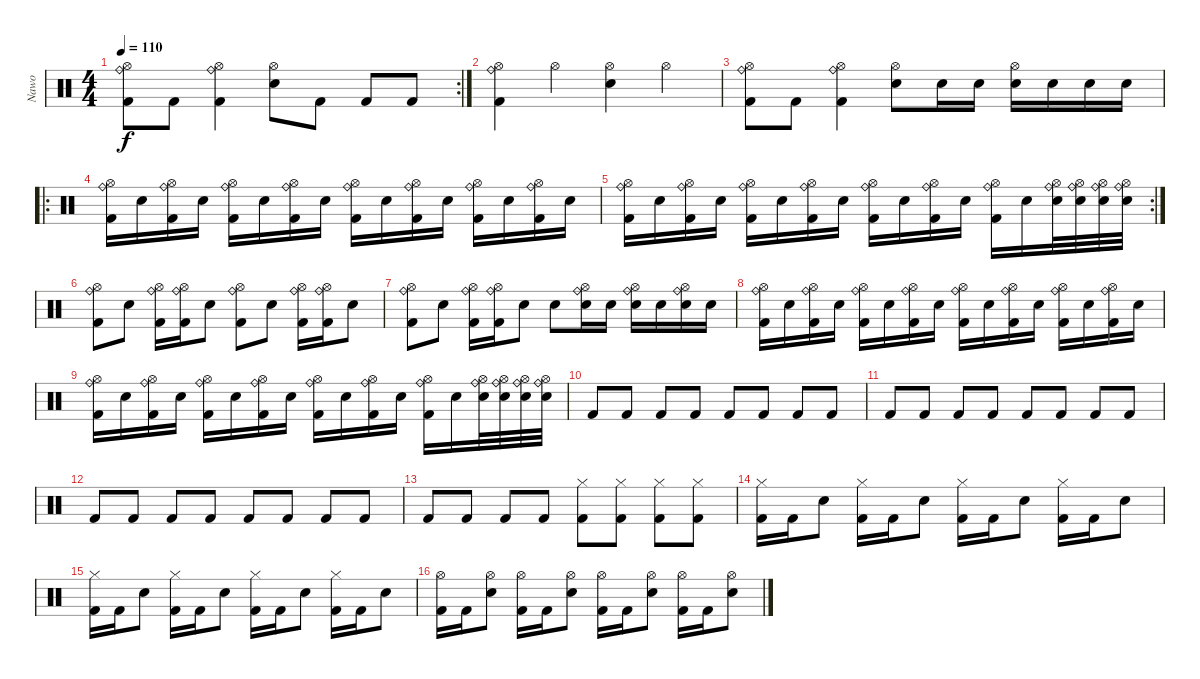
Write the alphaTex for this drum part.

\track ("Nawo" "Nawo") {instrument percussion}
\staff {score}
\articulation defaults
\rc 2
\ts (4 4)
\tempo 110
\clef neutral
\ks c
("Ride (bell)" "Hi-Hat (open)" "Kick (hit) 2").8{dy f} "Kick (hit) 2".8 ("Ride (bell)" "Hi-Hat (open)" "Kick (hit) 2").4 ("Hi-Hat (open)" "Electric Snare (hit)").8 "Kick (hit) 2".8 "Kick (hit) 2".8 "Kick (hit) 2".8 |
("Ride (bell)" "Hi-Hat (open)" "Kick (hit) 2").4 "Hi-Hat (open)".4 ("Hi-Hat (open)" "Electric Snare (hit)").4 "Hi-Hat (open)".4 |
("Ride (bell)" "Hi-Hat (open)" "Kick (hit) 2").8 "Kick (hit) 2".8 ("Ride (bell)" "Hi-Hat (open)" "Kick (hit) 2").4 ("Hi-Hat (open)" "Electric Snare (hit)").8 "Electric Snare (hit)".16 "Electric Snare (hit)".16 ("Hi-Hat (open)" "Electric Snare (hit)").16 "Electric Snare (hit)".16 "Electric Snare (hit)".16 "Electric Snare (hit)".16 |
\ro
("Ride (bell)" "Hi-Hat (open)" "Kick (hit) 2").16 "Electric Snare (hit)".16 ("Ride (bell)" "Hi-Hat (open)" "Kick (hit) 2").16 "Electric Snare (hit)".16 ("Ride (bell)" "Hi-Hat (open)" "Kick (hit) 2").16 "Electric Snare (hit)".16 ("Ride (bell)" "Hi-Hat (open)" "Kick (hit) 2").16 "Electric Snare (hit)".16 ("Ride (bell)" "Hi-Hat (open)" "Kick (hit) 2").16 "Electric Snare (hit)".16 ("Ride (bell)" "Hi-Hat (open)" "Kick (hit) 2").16 "Electric Snare (hit)".16 ("Ride (bell)" "Hi-Hat (open)" "Kick (hit) 2").16 "Electric Snare (hit)".16 ("Ride (bell)" "Hi-Hat (open)" "Kick (hit) 2").16 "Electric Snare (hit)".16 |
\rc 2
("Ride (bell)" "Hi-Hat (open)" "Kick (hit) 2").16 "Electric Snare (hit)".16 ("Ride (bell)" "Hi-Hat (open)" "Kick (hit) 2").16 "Electric Snare (hit)".16 ("Ride (bell)" "Hi-Hat (open)" "Kick (hit) 2").16 "Electric Snare (hit)".16 ("Ride (bell)" "Hi-Hat (open)" "Kick (hit) 2").16 "Electric Snare (hit)".16 ("Ride (bell)" "Hi-Hat (open)" "Kick (hit) 2").16 "Electric Snare (hit)".16 ("Ride (bell)" "Hi-Hat (open)" "Kick (hit) 2").16 "Electric Snare (hit)".16 ("Ride (bell)" "Hi-Hat (open)" "Kick (hit) 2").16 "Electric Snare (hit)".16 ("Ride (bell)" "Hi-Hat (open)" "Electric Snare (hit)").32 ("Ride (bell)" "Hi-Hat (open)" "Electric Snare (hit)").32 ("Ride (bell)" "Hi-Hat (open)" "Electric Snare (hit)").32 ("Ride (bell)" "Hi-Hat (open)" "Electric Snare (hit)").32 |
("Ride (bell)" "Hi-Hat (open)" "Kick (hit) 2").8 "Electric Snare (hit)".8 ("Ride (bell)" "Hi-Hat (open)" "Kick (hit) 2").16 ("Ride (bell)" "Hi-Hat (open)" "Kick (hit) 2").16 "Electric Snare (hit)".8 ("Ride (bell)" "Hi-Hat (open)" "Kick (hit) 2").8 "Electric Snare (hit)".8 ("Ride (bell)" "Hi-Hat (open)" "Kick (hit) 2").16 ("Ride (bell)" "Hi-Hat (open)" "Kick (hit) 2").16 "Electric Snare (hit)".8 |
("Ride (bell)" "Hi-Hat (open)" "Kick (hit) 2").8 "Electric Snare (hit)".8 ("Ride (bell)" "Hi-Hat (open)" "Kick (hit) 2").16 ("Ride (bell)" "Hi-Hat (open)" "Kick (hit) 2").16 "Electric Snare (hit)".8 "Electric Snare (hit)".8 ("Ride (bell)" "Hi-Hat (open)" "Electric Snare (hit)").16 "Electric Snare (hit)".16 ("Ride (bell)" "Hi-Hat (open)" "Electric Snare (hit)").16 "Electric Snare (hit)".16 ("Ride (bell)" "Hi-Hat (open)" "Electric Snare (hit)").16 "Electric Snare (hit)".16 |
("Ride (bell)" "Hi-Hat (open)" "Kick (hit) 2").16 "Electric Snare (hit)".16 ("Ride (bell)" "Hi-Hat (open)" "Kick (hit) 2").16 "Electric Snare (hit)".16 ("Ride (bell)" "Hi-Hat (open)" "Kick (hit) 2").16 "Electric Snare (hit)".16 ("Ride (bell)" "Hi-Hat (open)" "Kick (hit) 2").16 "Electric Snare (hit)".16 ("Ride (bell)" "Hi-Hat (open)" "Kick (hit) 2").16 "Electric Snare (hit)".16 ("Ride (bell)" "Hi-Hat (open)" "Kick (hit) 2").16 "Electric Snare (hit)".16 ("Ride (bell)" "Hi-Hat (open)" "Kick (hit) 2").16 "Electric Snare (hit)".16 ("Ride (bell)" "Hi-Hat (open)" "Kick (hit) 2").16 "Electric Snare (hit)".16 |
("Ride (bell)" "Hi-Hat (open)" "Kick (hit) 2").16 "Electric Snare (hit)".16 ("Ride (bell)" "Hi-Hat (open)" "Kick (hit) 2").16 "Electric Snare (hit)".16 ("Ride (bell)" "Hi-Hat (open)" "Kick (hit) 2").16 "Electric Snare (hit)".16 ("Ride (bell)" "Hi-Hat (open)" "Kick (hit) 2").16 "Electric Snare (hit)".16 ("Ride (bell)" "Hi-Hat (open)" "Kick (hit) 2").16 "Electric Snare (hit)".16 ("Ride (bell)" "Hi-Hat (open)" "Kick (hit) 2").16 "Electric Snare (hit)".16 ("Ride (bell)" "Hi-Hat (open)" "Kick (hit) 2").16 "Electric Snare (hit)".16 ("Ride (bell)" "Hi-Hat (open)" "Electric Snare (hit)").32 ("Ride (bell)" "Hi-Hat (open)" "Electric Snare (hit)").32 ("Ride (bell)" "Hi-Hat (open)" "Electric Snare (hit)").32 ("Ride (bell)" "Hi-Hat (open)" "Electric Snare (hit)").32 |
"Kick (hit) 2".8 "Kick (hit) 2".8 "Kick (hit) 2".8 "Kick (hit) 2".8 "Kick (hit) 2".8 "Kick (hit) 2".8 "Kick (hit) 2".8 "Kick (hit) 2".8 |
"Kick (hit) 2".8 "Kick (hit) 2".8 "Kick (hit) 2".8 "Kick (hit) 2".8 "Kick (hit) 2".8 "Kick (hit) 2".8 "Kick (hit) 2".8 "Kick (hit) 2".8 |
"Kick (hit) 2".8 "Kick (hit) 2".8 "Kick (hit) 2".8 "Kick (hit) 2".8 "Kick (hit) 2".8 "Kick (hit) 2".8 "Kick (hit) 2".8 "Kick (hit) 2".8 |
"Kick (hit) 2".8 "Kick (hit) 2".8 "Kick (hit) 2".8 "Kick (hit) 2".8 ("Hi-Hat (closed)" "Kick (hit) 2").8 ("Hi-Hat (closed)" "Kick (hit) 2").8 ("Hi-Hat (closed)" "Kick (hit) 2").8 ("Hi-Hat (closed)" "Kick (hit) 2").8 |
("Hi-Hat (closed)" "Kick (hit) 2").16 "Kick (hit) 2".16 "Electric Snare (hit)".8 ("Hi-Hat (closed)" "Kick (hit) 2").16 "Kick (hit) 2".16 "Electric Snare (hit)".8 ("Hi-Hat (closed)" "Kick (hit) 2").16 "Kick (hit) 2".16 "Electric Snare (hit)".8 ("Hi-Hat (closed)" "Kick (hit) 2").16 "Kick (hit) 2".16 "Electric Snare (hit)".8 |
("Hi-Hat (closed)" "Kick (hit) 2").16 "Kick (hit) 2".16 "Electric Snare (hit)".8 ("Hi-Hat (closed)" "Kick (hit) 2").16 "Kick (hit) 2".16 "Electric Snare (hit)".8 ("Hi-Hat (closed)" "Kick (hit) 2").16 "Kick (hit) 2".16 "Electric Snare (hit)".8 ("Hi-Hat (closed)" "Kick (hit) 2").16 "Kick (hit) 2".16 "Electric Snare (hit)".8 |
("Hi-Hat (open)" "Kick (hit) 2").16 "Kick (hit) 2".16 ("Hi-Hat (open)" "Electric Snare (hit)").8 ("Hi-Hat (open)" "Kick (hit) 2").16 "Kick (hit) 2".16 ("Hi-Hat (open)" "Electric Snare (hit)").8 ("Hi-Hat (open)" "Kick (hit) 2").16 "Kick (hit) 2".16 ("Hi-Hat (open)" "Electric Snare (hit)").8 ("Hi-Hat (open)" "Kick (hit) 2").16 "Kick (hit) 2".16 ("Hi-Hat (open)" "Electric Snare (hit)").8
